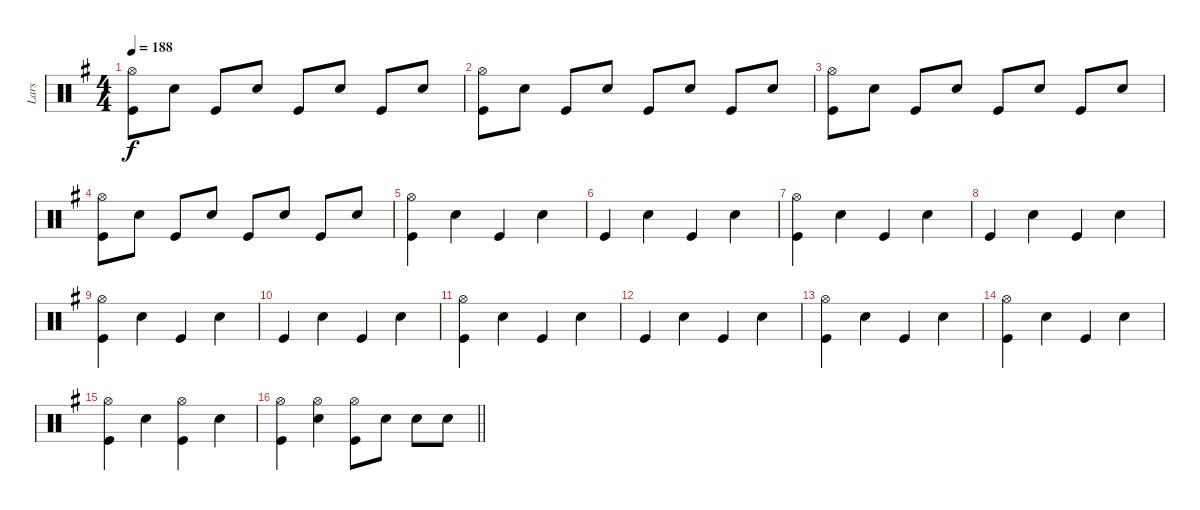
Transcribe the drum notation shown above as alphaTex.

\track ("Lars" "Lars") {instrument percussion}
\staff {score}
\articulation defaults
\ts (4 4)
\tempo 188
\clef neutral
\ks eminor
("Hi-Hat (open)" "Kick (hit)").8{dy f} "Snare (hit) 2".8 "Kick (hit)".8 "Snare (hit) 2".8 "Kick (hit)".8 "Snare (hit) 2".8 "Kick (hit)".8 "Snare (hit) 2".8 |
("Hi-Hat (open)" "Kick (hit)").8 "Snare (hit) 2".8 "Kick (hit)".8 "Snare (hit) 2".8 "Kick (hit)".8 "Snare (hit) 2".8 "Kick (hit)".8 "Snare (hit) 2".8 |
("Hi-Hat (open)" "Kick (hit)").8 "Snare (hit) 2".8 "Kick (hit)".8 "Snare (hit) 2".8 "Kick (hit)".8 "Snare (hit) 2".8 "Kick (hit)".8 "Snare (hit) 2".8 |
("Hi-Hat (open)" "Kick (hit)").8 "Snare (hit) 2".8 "Kick (hit)".8 "Snare (hit) 2".8 "Kick (hit)".8 "Snare (hit) 2".8 "Kick (hit)".8 "Snare (hit) 2".8 |
("Hi-Hat (open)" "Kick (hit)").4 "Snare (hit) 2".4 "Kick (hit)".4 "Snare (hit) 2".4 |
"Kick (hit)".4 "Snare (hit) 2".4 "Kick (hit)".4 "Snare (hit) 2".4 |
("Hi-Hat (open)" "Kick (hit)").4 "Snare (hit) 2".4 "Kick (hit)".4 "Snare (hit) 2".4 |
"Kick (hit)".4 "Snare (hit) 2".4 "Kick (hit)".4 "Snare (hit) 2".4 |
("Hi-Hat (open)" "Kick (hit)").4 "Snare (hit) 2".4 "Kick (hit)".4 "Snare (hit) 2".4 |
"Kick (hit)".4 "Snare (hit) 2".4 "Kick (hit)".4 "Snare (hit) 2".4 |
("Hi-Hat (open)" "Kick (hit)").4 "Snare (hit) 2".4 "Kick (hit)".4 "Snare (hit) 2".4 |
"Kick (hit)".4 "Snare (hit) 2".4 "Kick (hit)".4 "Snare (hit) 2".4 |
("Hi-Hat (open)" "Kick (hit)").4 "Snare (hit) 2".4 "Kick (hit)".4 "Snare (hit) 2".4 |
("Hi-Hat (open)" "Kick (hit)").4 "Snare (hit) 2".4 "Kick (hit)".4 "Snare (hit) 2".4 |
("Hi-Hat (open)" "Kick (hit)").4 "Snare (hit) 2".4 ("Hi-Hat (open)" "Kick (hit)").4 "Snare (hit) 2".4 |
\barLineRight lightlight
("Hi-Hat (open)" "Kick (hit)").4 ("Hi-Hat (open)" "Snare (hit) 2").4 ("Hi-Hat (open)" "Kick (hit)").8 "Snare (hit) 2".8 "Snare (hit) 2".8 "Snare (hit) 2".8
